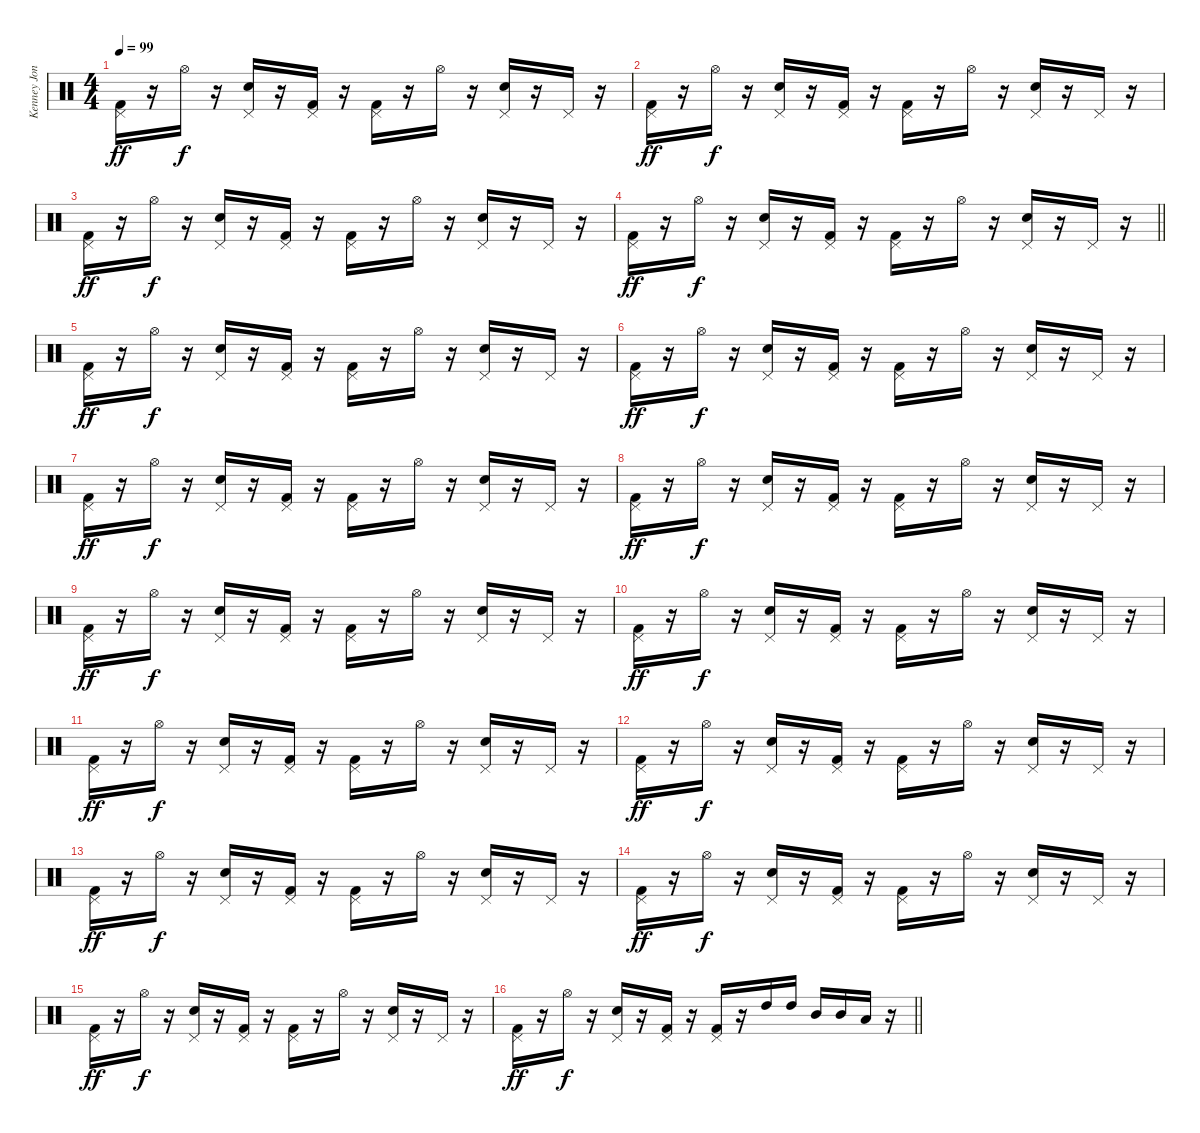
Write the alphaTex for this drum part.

\track ("Kenney Jones" "Kenney Jon") {instrument percussion}
\staff {score}
\articulation defaults
\ts (4 4)
\tempo 99
\clef neutral
\ks c
("Pedal Hi-Hat (hit)" "Kick (hit) 2").16{dy ff} r.16 "Hi-Hat (open)".16{dy f} r.16 ("Pedal Hi-Hat (hit)" "Snare (hit) 2").16 r.16 ("Pedal Hi-Hat (hit)" "Kick (hit) 2").16 r.16 ("Pedal Hi-Hat (hit)" "Kick (hit) 2").16 r.16 "Hi-Hat (open)".16 r.16 ("Pedal Hi-Hat (hit)" "Snare (hit) 2").16 r.16 "Pedal Hi-Hat (hit)".16 r.16 |
("Pedal Hi-Hat (hit)" "Kick (hit) 2").16{dy ff} r.16 "Hi-Hat (open)".16{dy f} r.16 ("Pedal Hi-Hat (hit)" "Snare (hit) 2").16 r.16 ("Pedal Hi-Hat (hit)" "Kick (hit) 2").16 r.16 ("Pedal Hi-Hat (hit)" "Kick (hit) 2").16 r.16 "Hi-Hat (open)".16 r.16 ("Pedal Hi-Hat (hit)" "Snare (hit) 2").16 r.16 "Pedal Hi-Hat (hit)".16 r.16 |
("Pedal Hi-Hat (hit)" "Kick (hit) 2").16{dy ff} r.16 "Hi-Hat (open)".16{dy f} r.16 ("Pedal Hi-Hat (hit)" "Snare (hit) 2").16 r.16 ("Pedal Hi-Hat (hit)" "Kick (hit) 2").16 r.16 ("Pedal Hi-Hat (hit)" "Kick (hit) 2").16 r.16 "Hi-Hat (open)".16 r.16 ("Pedal Hi-Hat (hit)" "Snare (hit) 2").16 r.16 "Pedal Hi-Hat (hit)".16 r.16 |
\barLineRight lightlight
("Pedal Hi-Hat (hit)" "Kick (hit) 2").16{dy ff} r.16 "Hi-Hat (open)".16{dy f} r.16 ("Pedal Hi-Hat (hit)" "Snare (hit) 2").16 r.16 ("Pedal Hi-Hat (hit)" "Kick (hit) 2").16 r.16 ("Pedal Hi-Hat (hit)" "Kick (hit) 2").16 r.16 "Hi-Hat (open)".16 r.16 ("Pedal Hi-Hat (hit)" "Snare (hit) 2").16 r.16 "Pedal Hi-Hat (hit)".16 r.16 |
("Pedal Hi-Hat (hit)" "Kick (hit) 2").16{dy ff} r.16 "Hi-Hat (open)".16{dy f} r.16 ("Pedal Hi-Hat (hit)" "Snare (hit) 2").16 r.16 ("Pedal Hi-Hat (hit)" "Kick (hit) 2").16 r.16 ("Pedal Hi-Hat (hit)" "Kick (hit) 2").16 r.16 "Hi-Hat (open)".16 r.16 ("Pedal Hi-Hat (hit)" "Snare (hit) 2").16 r.16 "Pedal Hi-Hat (hit)".16 r.16 |
("Pedal Hi-Hat (hit)" "Kick (hit) 2").16{dy ff} r.16 "Hi-Hat (open)".16{dy f} r.16 ("Pedal Hi-Hat (hit)" "Snare (hit) 2").16 r.16 ("Pedal Hi-Hat (hit)" "Kick (hit) 2").16 r.16 ("Pedal Hi-Hat (hit)" "Kick (hit) 2").16 r.16 "Hi-Hat (open)".16 r.16 ("Pedal Hi-Hat (hit)" "Snare (hit) 2").16 r.16 "Pedal Hi-Hat (hit)".16 r.16 |
("Pedal Hi-Hat (hit)" "Kick (hit) 2").16{dy ff} r.16 "Hi-Hat (open)".16{dy f} r.16 ("Pedal Hi-Hat (hit)" "Snare (hit) 2").16 r.16 ("Pedal Hi-Hat (hit)" "Kick (hit) 2").16 r.16 ("Pedal Hi-Hat (hit)" "Kick (hit) 2").16 r.16 "Hi-Hat (open)".16 r.16 ("Pedal Hi-Hat (hit)" "Snare (hit) 2").16 r.16 "Pedal Hi-Hat (hit)".16 r.16 |
("Pedal Hi-Hat (hit)" "Kick (hit) 2").16{dy ff} r.16 "Hi-Hat (open)".16{dy f} r.16 ("Pedal Hi-Hat (hit)" "Snare (hit) 2").16 r.16 ("Pedal Hi-Hat (hit)" "Kick (hit) 2").16 r.16 ("Pedal Hi-Hat (hit)" "Kick (hit) 2").16 r.16 "Hi-Hat (open)".16 r.16 ("Pedal Hi-Hat (hit)" "Snare (hit) 2").16 r.16 "Pedal Hi-Hat (hit)".16 r.16 |
("Pedal Hi-Hat (hit)" "Kick (hit) 2").16{dy ff} r.16 "Hi-Hat (open)".16{dy f} r.16 ("Pedal Hi-Hat (hit)" "Snare (hit) 2").16 r.16 ("Pedal Hi-Hat (hit)" "Kick (hit) 2").16 r.16 ("Pedal Hi-Hat (hit)" "Kick (hit) 2").16 r.16 "Hi-Hat (open)".16 r.16 ("Pedal Hi-Hat (hit)" "Snare (hit) 2").16 r.16 "Pedal Hi-Hat (hit)".16 r.16 |
("Pedal Hi-Hat (hit)" "Kick (hit) 2").16{dy ff} r.16 "Hi-Hat (open)".16{dy f} r.16 ("Pedal Hi-Hat (hit)" "Snare (hit) 2").16 r.16 ("Pedal Hi-Hat (hit)" "Kick (hit) 2").16 r.16 ("Pedal Hi-Hat (hit)" "Kick (hit) 2").16 r.16 "Hi-Hat (open)".16 r.16 ("Pedal Hi-Hat (hit)" "Snare (hit) 2").16 r.16 "Pedal Hi-Hat (hit)".16 r.16 |
("Pedal Hi-Hat (hit)" "Kick (hit) 2").16{dy ff} r.16 "Hi-Hat (open)".16{dy f} r.16 ("Pedal Hi-Hat (hit)" "Snare (hit) 2").16 r.16 ("Pedal Hi-Hat (hit)" "Kick (hit) 2").16 r.16 ("Pedal Hi-Hat (hit)" "Kick (hit) 2").16 r.16 "Hi-Hat (open)".16 r.16 ("Pedal Hi-Hat (hit)" "Snare (hit) 2").16 r.16 "Pedal Hi-Hat (hit)".16 r.16 |
("Pedal Hi-Hat (hit)" "Kick (hit) 2").16{dy ff} r.16 "Hi-Hat (open)".16{dy f} r.16 ("Pedal Hi-Hat (hit)" "Snare (hit) 2").16 r.16 ("Pedal Hi-Hat (hit)" "Kick (hit) 2").16 r.16 ("Pedal Hi-Hat (hit)" "Kick (hit) 2").16 r.16 "Hi-Hat (open)".16 r.16 ("Pedal Hi-Hat (hit)" "Snare (hit) 2").16 r.16 "Pedal Hi-Hat (hit)".16 r.16 |
("Pedal Hi-Hat (hit)" "Kick (hit) 2").16{dy ff} r.16 "Hi-Hat (open)".16{dy f} r.16 ("Pedal Hi-Hat (hit)" "Snare (hit) 2").16 r.16 ("Pedal Hi-Hat (hit)" "Kick (hit) 2").16 r.16 ("Pedal Hi-Hat (hit)" "Kick (hit) 2").16 r.16 "Hi-Hat (open)".16 r.16 ("Pedal Hi-Hat (hit)" "Snare (hit) 2").16 r.16 "Pedal Hi-Hat (hit)".16 r.16 |
("Pedal Hi-Hat (hit)" "Kick (hit) 2").16{dy ff} r.16 "Hi-Hat (open)".16{dy f} r.16 ("Pedal Hi-Hat (hit)" "Snare (hit) 2").16 r.16 ("Pedal Hi-Hat (hit)" "Kick (hit) 2").16 r.16 ("Pedal Hi-Hat (hit)" "Kick (hit) 2").16 r.16 "Hi-Hat (open)".16 r.16 ("Pedal Hi-Hat (hit)" "Snare (hit) 2").16 r.16 "Pedal Hi-Hat (hit)".16 r.16 |
("Pedal Hi-Hat (hit)" "Kick (hit) 2").16{dy ff} r.16 "Hi-Hat (open)".16{dy f} r.16 ("Pedal Hi-Hat (hit)" "Snare (hit) 2").16 r.16 ("Pedal Hi-Hat (hit)" "Kick (hit) 2").16 r.16 ("Pedal Hi-Hat (hit)" "Kick (hit) 2").16 r.16 "Hi-Hat (open)".16 r.16 ("Pedal Hi-Hat (hit)" "Snare (hit) 2").16 r.16 "Pedal Hi-Hat (hit)".16 r.16 |
\barLineRight lightlight
("Pedal Hi-Hat (hit)" "Kick (hit) 2").16{dy ff} r.16 "Hi-Hat (open)".16{dy f} r.16 ("Pedal Hi-Hat (hit)" "Snare (hit) 2").16 r.16 ("Pedal Hi-Hat (hit)" "Kick (hit) 2").16 r.16 ("Pedal Hi-Hat (hit)" "Kick (hit) 2").16 r.16 "High Tom (hit)".16 "High Tom (hit)".16 "Mid Tom (hit)".16 "Mid Tom (hit)".16 "Low Tom (hit)".16 r.16
